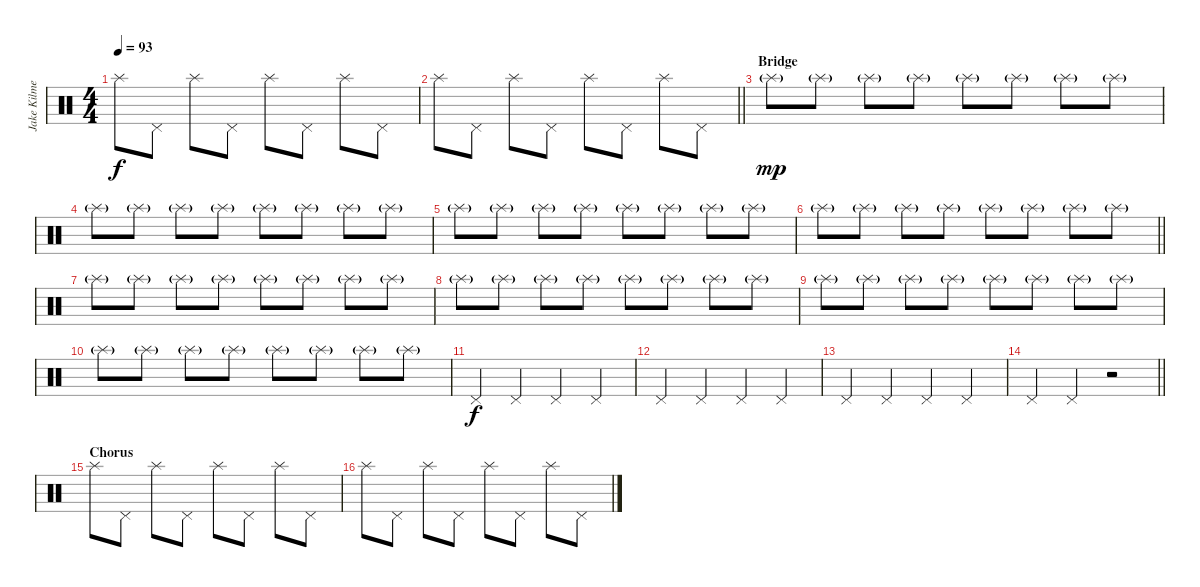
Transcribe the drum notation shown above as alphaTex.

\track ("Jake Kilmer (Drums)" "Jake Kilme") {instrument percussion}
\staff {score}
\articulation defaults
\ts (4 4)
\tempo 93
\clef neutral
\ks c "Splash (hit)".8{dy f} "Pedal Hi-Hat (hit)".8 "Splash (hit)".8 "Pedal Hi-Hat (hit)".8 "Splash (hit)".8 "Pedal Hi-Hat (hit)".8 "Splash (hit)".8 "Pedal Hi-Hat (hit)".8
|
\barLineRight lightlight "Splash (hit)".8 "Pedal Hi-Hat (hit)".8 "Splash (hit)".8 "Pedal Hi-Hat (hit)".8 "Splash (hit)".8 "Pedal Hi-Hat (hit)".8 "Splash (hit)".8 "Pedal Hi-Hat (hit)".8
|
\section ("" "Bridge")
"Splash (hit)"{g}.8{dy mp} "Splash (hit)"{g}.8 "Splash (hit)"{g}.8 "Splash (hit)"{g}.8 "Splash (hit)"{g}.8 "Splash (hit)"{g}.8 "Splash (hit)"{g}.8 "Splash (hit)"{g}.8 |
"Splash (hit)"{g}.8 "Splash (hit)"{g}.8 "Splash (hit)"{g}.8 "Splash (hit)"{g}.8 "Splash (hit)"{g}.8 "Splash (hit)"{g}.8 "Splash (hit)"{g}.8 "Splash (hit)"{g}.8 |
"Splash (hit)"{g}.8 "Splash (hit)"{g}.8 "Splash (hit)"{g}.8 "Splash (hit)"{g}.8 "Splash (hit)"{g}.8 "Splash (hit)"{g}.8 "Splash (hit)"{g}.8 "Splash (hit)"{g}.8 |
\barLineRight lightlight "Splash (hit)"{g}.8 "Splash (hit)"{g}.8 "Splash (hit)"{g}.8 "Splash (hit)"{g}.8 "Splash (hit)"{g}.8 "Splash (hit)"{g}.8 "Splash (hit)"{g}.8 "Splash (hit)"{g}.8
|
"Splash (hit)"{g}.8 "Splash (hit)"{g}.8 "Splash (hit)"{g}.8 "Splash (hit)"{g}.8 "Splash (hit)"{g}.8 "Splash (hit)"{g}.8 "Splash (hit)"{g}.8 "Splash (hit)"{g}.8 |
"Splash (hit)"{g}.8 "Splash (hit)"{g}.8 "Splash (hit)"{g}.8 "Splash (hit)"{g}.8 "Splash (hit)"{g}.8 "Splash (hit)"{g}.8 "Splash (hit)"{g}.8 "Splash (hit)"{g}.8 |
"Splash (hit)"{g}.8 "Splash (hit)"{g}.8 "Splash (hit)"{g}.8 "Splash (hit)"{g}.8 "Splash (hit)"{g}.8 "Splash (hit)"{g}.8 "Splash (hit)"{g}.8 "Splash (hit)"{g}.8 |
"Splash (hit)"{g}.8 "Splash (hit)"{g}.8 "Splash (hit)"{g}.8 "Splash (hit)"{g}.8 "Splash (hit)"{g}.8 "Splash (hit)"{g}.8 "Splash (hit)"{g}.8 "Splash (hit)"{g}.8 |
"Pedal Hi-Hat (hit)".4{dy f} "Pedal Hi-Hat (hit)".4 "Pedal Hi-Hat (hit)".4 "Pedal Hi-Hat (hit)".4 |
"Pedal Hi-Hat (hit)".4 "Pedal Hi-Hat (hit)".4 "Pedal Hi-Hat (hit)".4 "Pedal Hi-Hat (hit)".4 |
"Pedal Hi-Hat (hit)".4 "Pedal Hi-Hat (hit)".4 "Pedal Hi-Hat (hit)".4 "Pedal Hi-Hat (hit)".4 |
\barLineRight lightlight "Pedal Hi-Hat (hit)".4 "Pedal Hi-Hat (hit)".4
r.2 |
\section ("" "Chorus")
"Splash (hit)".8 "Pedal Hi-Hat (hit)".8 "Splash (hit)".8 "Pedal Hi-Hat (hit)".8 "Splash (hit)".8 "Pedal Hi-Hat (hit)".8 "Splash (hit)".8 "Pedal Hi-Hat (hit)".8 |
"Splash (hit)".8 "Pedal Hi-Hat (hit)".8 "Splash (hit)".8 "Pedal Hi-Hat (hit)".8 "Splash (hit)".8 "Pedal Hi-Hat (hit)".8 "Splash (hit)".8 "Pedal Hi-Hat (hit)".8
